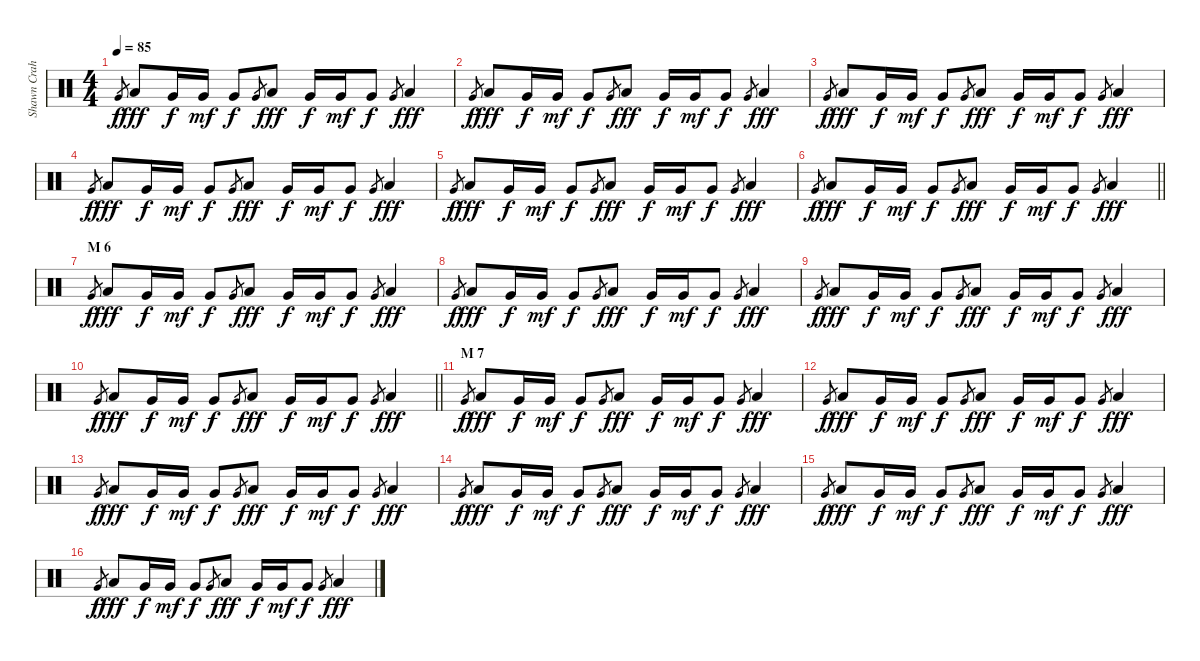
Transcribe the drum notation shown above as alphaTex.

\track ("Shawn Crahan" "Shawn Crah") {instrument percussion}
\staff {score}
\articulation defaults
\ts (4 4)
\tempo 85
\clef neutral
\ks c "Very Low Tom (hit)".8{gr dy f} "Low Tom (hit)".8{dy fff} "Very Low Tom (hit)".16{dy f} "Very Low Tom (hit)".16{dy mf} "Very Low Tom (hit)".8{dy f} "Very Low Tom (hit)".8{gr} "Low Tom (hit)".8{dy fff} "Very Low Tom (hit)".16{dy f} "Very Low Tom (hit)".16{dy mf} "Very Low Tom (hit)".8{dy f} "Very Low Tom (hit)".8{gr} "Low Tom (hit)".4{dy fff}
|
"Very Low Tom (hit)".8{gr dy f} "Low Tom (hit)".8{dy fff} "Very Low Tom (hit)".16{dy f} "Very Low Tom (hit)".16{dy mf} "Very Low Tom (hit)".8{dy f} "Very Low Tom (hit)".8{gr} "Low Tom (hit)".8{dy fff} "Very Low Tom (hit)".16{dy f} "Very Low Tom (hit)".16{dy mf} "Very Low Tom (hit)".8{dy f} "Very Low Tom (hit)".8{gr} "Low Tom (hit)".4{dy fff} |
"Very Low Tom (hit)".8{gr dy f} "Low Tom (hit)".8{dy fff} "Very Low Tom (hit)".16{dy f} "Very Low Tom (hit)".16{dy mf} "Very Low Tom (hit)".8{dy f} "Very Low Tom (hit)".8{gr} "Low Tom (hit)".8{dy fff} "Very Low Tom (hit)".16{dy f} "Very Low Tom (hit)".16{dy mf} "Very Low Tom (hit)".8{dy f} "Very Low Tom (hit)".8{gr} "Low Tom (hit)".4{dy fff} |
"Very Low Tom (hit)".8{gr dy f} "Low Tom (hit)".8{dy fff} "Very Low Tom (hit)".16{dy f} "Very Low Tom (hit)".16{dy mf} "Very Low Tom (hit)".8{dy f} "Very Low Tom (hit)".8{gr} "Low Tom (hit)".8{dy fff} "Very Low Tom (hit)".16{dy f} "Very Low Tom (hit)".16{dy mf} "Very Low Tom (hit)".8{dy f} "Very Low Tom (hit)".8{gr} "Low Tom (hit)".4{dy fff} |
"Very Low Tom (hit)".8{gr dy f} "Low Tom (hit)".8{dy fff} "Very Low Tom (hit)".16{dy f} "Very Low Tom (hit)".16{dy mf} "Very Low Tom (hit)".8{dy f} "Very Low Tom (hit)".8{gr} "Low Tom (hit)".8{dy fff} "Very Low Tom (hit)".16{dy f} "Very Low Tom (hit)".16{dy mf} "Very Low Tom (hit)".8{dy f} "Very Low Tom (hit)".8{gr} "Low Tom (hit)".4{dy fff} |
\barLineRight lightlight "Very Low Tom (hit)".8{gr dy f} "Low Tom (hit)".8{dy fff} "Very Low Tom (hit)".16{dy f} "Very Low Tom (hit)".16{dy mf} "Very Low Tom (hit)".8{dy f} "Very Low Tom (hit)".8{gr} "Low Tom (hit)".8{dy fff} "Very Low Tom (hit)".16{dy f} "Very Low Tom (hit)".16{dy mf} "Very Low Tom (hit)".8{dy f} "Very Low Tom (hit)".8{gr} "Low Tom (hit)".4{dy fff}
|
\section ("" "M 6")
"Very Low Tom (hit)".8{gr dy f} "Low Tom (hit)".8{dy fff} "Very Low Tom (hit)".16{dy f} "Very Low Tom (hit)".16{dy mf} "Very Low Tom (hit)".8{dy f} "Very Low Tom (hit)".8{gr} "Low Tom (hit)".8{dy fff} "Very Low Tom (hit)".16{dy f} "Very Low Tom (hit)".16{dy mf} "Very Low Tom (hit)".8{dy f} "Very Low Tom (hit)".8{gr} "Low Tom (hit)".4{dy fff} |
"Very Low Tom (hit)".8{gr dy f} "Low Tom (hit)".8{dy fff} "Very Low Tom (hit)".16{dy f} "Very Low Tom (hit)".16{dy mf} "Very Low Tom (hit)".8{dy f} "Very Low Tom (hit)".8{gr} "Low Tom (hit)".8{dy fff} "Very Low Tom (hit)".16{dy f} "Very Low Tom (hit)".16{dy mf} "Very Low Tom (hit)".8{dy f} "Very Low Tom (hit)".8{gr} "Low Tom (hit)".4{dy fff} |
"Very Low Tom (hit)".8{gr dy f} "Low Tom (hit)".8{dy fff} "Very Low Tom (hit)".16{dy f} "Very Low Tom (hit)".16{dy mf} "Very Low Tom (hit)".8{dy f} "Very Low Tom (hit)".8{gr} "Low Tom (hit)".8{dy fff} "Very Low Tom (hit)".16{dy f} "Very Low Tom (hit)".16{dy mf} "Very Low Tom (hit)".8{dy f} "Very Low Tom (hit)".8{gr} "Low Tom (hit)".4{dy fff} |
\barLineRight lightlight "Very Low Tom (hit)".8{gr dy f} "Low Tom (hit)".8{dy fff} "Very Low Tom (hit)".16{dy f} "Very Low Tom (hit)".16{dy mf} "Very Low Tom (hit)".8{dy f} "Very Low Tom (hit)".8{gr} "Low Tom (hit)".8{dy fff} "Very Low Tom (hit)".16{dy f} "Very Low Tom (hit)".16{dy mf} "Very Low Tom (hit)".8{dy f} "Very Low Tom (hit)".8{gr} "Low Tom (hit)".4{dy fff}
|
\section ("" "M 7")
"Very Low Tom (hit)".8{gr dy f} "Low Tom (hit)".8{dy fff} "Very Low Tom (hit)".16{dy f} "Very Low Tom (hit)".16{dy mf} "Very Low Tom (hit)".8{dy f} "Very Low Tom (hit)".8{gr} "Low Tom (hit)".8{dy fff} "Very Low Tom (hit)".16{dy f} "Very Low Tom (hit)".16{dy mf} "Very Low Tom (hit)".8{dy f} "Very Low Tom (hit)".8{gr} "Low Tom (hit)".4{dy fff} |
"Very Low Tom (hit)".8{gr dy f} "Low Tom (hit)".8{dy fff} "Very Low Tom (hit)".16{dy f} "Very Low Tom (hit)".16{dy mf} "Very Low Tom (hit)".8{dy f} "Very Low Tom (hit)".8{gr} "Low Tom (hit)".8{dy fff} "Very Low Tom (hit)".16{dy f} "Very Low Tom (hit)".16{dy mf} "Very Low Tom (hit)".8{dy f} "Very Low Tom (hit)".8{gr} "Low Tom (hit)".4{dy fff} |
"Very Low Tom (hit)".8{gr dy f} "Low Tom (hit)".8{dy fff} "Very Low Tom (hit)".16{dy f} "Very Low Tom (hit)".16{dy mf} "Very Low Tom (hit)".8{dy f} "Very Low Tom (hit)".8{gr} "Low Tom (hit)".8{dy fff} "Very Low Tom (hit)".16{dy f} "Very Low Tom (hit)".16{dy mf} "Very Low Tom (hit)".8{dy f} "Very Low Tom (hit)".8{gr} "Low Tom (hit)".4{dy fff} |
"Very Low Tom (hit)".8{gr dy f} "Low Tom (hit)".8{dy fff} "Very Low Tom (hit)".16{dy f} "Very Low Tom (hit)".16{dy mf} "Very Low Tom (hit)".8{dy f} "Very Low Tom (hit)".8{gr} "Low Tom (hit)".8{dy fff} "Very Low Tom (hit)".16{dy f} "Very Low Tom (hit)".16{dy mf} "Very Low Tom (hit)".8{dy f} "Very Low Tom (hit)".8{gr} "Low Tom (hit)".4{dy fff} |
"Very Low Tom (hit)".8{gr dy f} "Low Tom (hit)".8{dy fff} "Very Low Tom (hit)".16{dy f} "Very Low Tom (hit)".16{dy mf} "Very Low Tom (hit)".8{dy f} "Very Low Tom (hit)".8{gr} "Low Tom (hit)".8{dy fff} "Very Low Tom (hit)".16{dy f} "Very Low Tom (hit)".16{dy mf} "Very Low Tom (hit)".8{dy f} "Very Low Tom (hit)".8{gr} "Low Tom (hit)".4{dy fff} |
"Very Low Tom (hit)".8{gr dy f} "Low Tom (hit)".8{dy fff} "Very Low Tom (hit)".16{dy f} "Very Low Tom (hit)".16{dy mf} "Very Low Tom (hit)".8{dy f} "Very Low Tom (hit)".8{gr} "Low Tom (hit)".8{dy fff} "Very Low Tom (hit)".16{dy f} "Very Low Tom (hit)".16{dy mf} "Very Low Tom (hit)".8{dy f} "Very Low Tom (hit)".8{gr} "Low Tom (hit)".4{dy fff}
